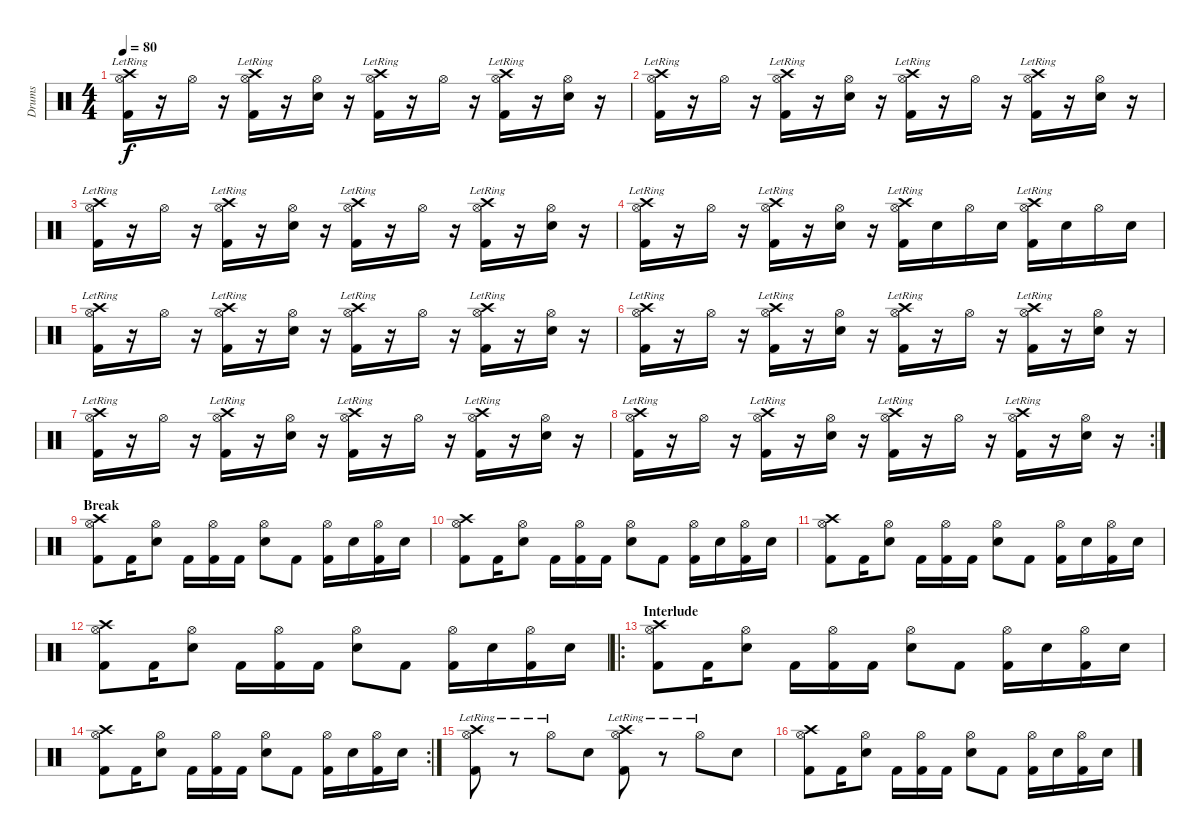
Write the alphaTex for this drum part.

\track ("Drums" "Drums") {instrument percussion}
\staff {score}
\articulation defaults
\ts (4 4)
\tempo 80
\clef neutral
\ks c
("Crash high (hit)"{lr} "Hi-Hat (open)" "Kick (hit) 2").16{dy f} r.16 "Hi-Hat (open)".16 r.16 ("Crash high (hit)"{lr} "Hi-Hat (open)" "Kick (hit) 2").16 r.16 ("Hi-Hat (open)" "Snare (hit) 2").16 r.16 ("Crash high (hit)"{lr} "Hi-Hat (open)" "Kick (hit) 2").16 r.16 "Hi-Hat (open)".16 r.16 ("Crash high (hit)"{lr} "Hi-Hat (open)" "Kick (hit) 2").16 r.16 ("Hi-Hat (open)" "Snare (hit) 2").16 r.16 |
("Crash high (hit)"{lr} "Hi-Hat (open)" "Kick (hit) 2").16 r.16 "Hi-Hat (open)".16 r.16 ("Crash high (hit)"{lr} "Hi-Hat (open)" "Kick (hit) 2").16 r.16 ("Hi-Hat (open)" "Snare (hit) 2").16 r.16 ("Crash high (hit)"{lr} "Hi-Hat (open)" "Kick (hit) 2").16 r.16 "Hi-Hat (open)".16 r.16 ("Crash high (hit)"{lr} "Hi-Hat (open)" "Kick (hit) 2").16 r.16 ("Hi-Hat (open)" "Snare (hit) 2").16 r.16 |
("Crash high (hit)"{lr} "Hi-Hat (open)" "Kick (hit) 2").16 r.16 "Hi-Hat (open)".16 r.16 ("Crash high (hit)"{lr} "Hi-Hat (open)" "Kick (hit) 2").16 r.16 ("Hi-Hat (open)" "Snare (hit) 2").16 r.16 ("Crash high (hit)"{lr} "Hi-Hat (open)" "Kick (hit) 2").16 r.16 "Hi-Hat (open)".16 r.16 ("Crash high (hit)"{lr} "Hi-Hat (open)" "Kick (hit) 2").16 r.16 ("Hi-Hat (open)" "Snare (hit) 2").16 r.16 |
("Crash high (hit)"{lr} "Hi-Hat (open)" "Kick (hit) 2").16 r.16 "Hi-Hat (open)".16 r.16 ("Crash high (hit)"{lr} "Hi-Hat (open)" "Kick (hit) 2").16 r.16 ("Hi-Hat (open)" "Snare (hit) 2").16 r.16 ("Crash high (hit)"{lr} "Hi-Hat (open)" "Kick (hit) 2").16 "Snare (hit) 2".16 "Hi-Hat (open)".16 "Snare (hit) 2".16 ("Crash high (hit)"{lr} "Hi-Hat (open)" "Kick (hit) 2").16 "Snare (hit) 2".16 "Hi-Hat (open)".16 "Snare (hit) 2".16 |
("Crash high (hit)"{lr} "Hi-Hat (open)" "Kick (hit) 2").16 r.16 "Hi-Hat (open)".16 r.16 ("Crash high (hit)"{lr} "Hi-Hat (open)" "Kick (hit) 2").16 r.16 ("Hi-Hat (open)" "Snare (hit) 2").16 r.16 ("Crash high (hit)"{lr} "Hi-Hat (open)" "Kick (hit) 2").16 r.16 "Hi-Hat (open)".16 r.16 ("Crash high (hit)"{lr} "Hi-Hat (open)" "Kick (hit) 2").16 r.16 ("Hi-Hat (open)" "Snare (hit) 2").16 r.16 |
("Crash high (hit)"{lr} "Hi-Hat (open)" "Kick (hit) 2").16 r.16 "Hi-Hat (open)".16 r.16 ("Crash high (hit)"{lr} "Hi-Hat (open)" "Kick (hit) 2").16 r.16 ("Hi-Hat (open)" "Snare (hit) 2").16 r.16 ("Crash high (hit)"{lr} "Hi-Hat (open)" "Kick (hit) 2").16 r.16 "Hi-Hat (open)".16 r.16 ("Crash high (hit)"{lr} "Hi-Hat (open)" "Kick (hit) 2").16 r.16 ("Hi-Hat (open)" "Snare (hit) 2").16 r.16 |
("Crash high (hit)"{lr} "Hi-Hat (open)" "Kick (hit) 2").16 r.16 "Hi-Hat (open)".16 r.16 ("Crash high (hit)"{lr} "Hi-Hat (open)" "Kick (hit) 2").16 r.16 ("Hi-Hat (open)" "Snare (hit) 2").16 r.16 ("Crash high (hit)"{lr} "Hi-Hat (open)" "Kick (hit) 2").16 r.16 "Hi-Hat (open)".16 r.16 ("Crash high (hit)"{lr} "Hi-Hat (open)" "Kick (hit) 2").16 r.16 ("Hi-Hat (open)" "Snare (hit) 2").16 r.16 |
\rc 2
("Crash high (hit)"{lr} "Hi-Hat (open)" "Kick (hit) 2").16 r.16 "Hi-Hat (open)".16 r.16 ("Crash high (hit)"{lr} "Hi-Hat (open)" "Kick (hit) 2").16 r.16 ("Hi-Hat (open)" "Snare (hit) 2").16 r.16 ("Crash high (hit)"{lr} "Hi-Hat (open)" "Kick (hit) 2").16 r.16 "Hi-Hat (open)".16 r.16 ("Crash high (hit)"{lr} "Hi-Hat (open)" "Kick (hit) 2").16 r.16 ("Hi-Hat (open)" "Snare (hit) 2").16 r.16 |
\section ("" "Break")
("Crash high (hit)" "Hi-Hat (open)" "Kick (hit) 2").8 "Kick (hit) 2".16 ("Hi-Hat (open)" "Snare (hit) 2").8 "Kick (hit) 2".16 ("Hi-Hat (open)" "Kick (hit) 2").16 "Kick (hit) 2".16 ("Hi-Hat (open)" "Snare (hit) 2").8 "Kick (hit) 2".8 ("Hi-Hat (open)" "Kick (hit) 2").16 "Snare (hit) 2".16 ("Hi-Hat (open)" "Kick (hit) 2").16 "Snare (hit) 2".16 |
("Crash high (hit)" "Hi-Hat (open)" "Kick (hit) 2").8 "Kick (hit) 2".16 ("Hi-Hat (open)" "Snare (hit) 2").8 "Kick (hit) 2".16 ("Hi-Hat (open)" "Kick (hit) 2").16 "Kick (hit) 2".16 ("Hi-Hat (open)" "Snare (hit) 2").8 "Kick (hit) 2".8 ("Hi-Hat (open)" "Kick (hit) 2").16 "Snare (hit) 2".16 ("Hi-Hat (open)" "Kick (hit) 2").16 "Snare (hit) 2".16 |
("Crash high (hit)" "Hi-Hat (open)" "Kick (hit) 2").8 "Kick (hit) 2".16 ("Hi-Hat (open)" "Snare (hit) 2").8 "Kick (hit) 2".16 ("Hi-Hat (open)" "Kick (hit) 2").16 "Kick (hit) 2".16 ("Hi-Hat (open)" "Snare (hit) 2").8 "Kick (hit) 2".8 ("Hi-Hat (open)" "Kick (hit) 2").16 "Snare (hit) 2".16 ("Hi-Hat (open)" "Kick (hit) 2").16 "Snare (hit) 2".16 |
("Crash high (hit)" "Hi-Hat (open)" "Kick (hit) 2").8 "Kick (hit) 2".16 ("Hi-Hat (open)" "Snare (hit) 2").8 "Kick (hit) 2".16 ("Hi-Hat (open)" "Kick (hit) 2").16 "Kick (hit) 2".16 ("Hi-Hat (open)" "Snare (hit) 2").8 "Kick (hit) 2".8 ("Hi-Hat (open)" "Kick (hit) 2").16 "Snare (hit) 2".16 ("Hi-Hat (open)" "Kick (hit) 2").16 "Snare (hit) 2".16 |
\ro
\section ("" "Interlude")
("Crash high (hit)" "Hi-Hat (open)" "Kick (hit) 2").8 "Kick (hit) 2".16 ("Hi-Hat (open)" "Snare (hit) 2").8 "Kick (hit) 2".16 ("Hi-Hat (open)" "Kick (hit) 2").16 "Kick (hit) 2".16 ("Hi-Hat (open)" "Snare (hit) 2").8 "Kick (hit) 2".8 ("Hi-Hat (open)" "Kick (hit) 2").16 "Snare (hit) 2".16 ("Hi-Hat (open)" "Kick (hit) 2").16 "Snare (hit) 2".16 |
\rc 2
("Crash high (hit)" "Hi-Hat (open)" "Kick (hit) 2").8 "Kick (hit) 2".16 ("Hi-Hat (open)" "Snare (hit) 2").8 "Kick (hit) 2".16 ("Hi-Hat (open)" "Kick (hit) 2").16 "Kick (hit) 2".16 ("Hi-Hat (open)" "Snare (hit) 2").8 "Kick (hit) 2".8 ("Hi-Hat (open)" "Kick (hit) 2").16 "Snare (hit) 2".16 ("Hi-Hat (open)" "Kick (hit) 2").16 "Snare (hit) 2".16 |
("Crash high (hit)"{lr} "Hi-Hat (open)"{lr} "Kick (hit) 2").8 r.8 "Hi-Hat (open)"{lr}.8 "Snare (hit) 2".8 ("Crash high (hit)"{lr} "Hi-Hat (open)"{lr} "Kick (hit) 2").8 r.8 "Hi-Hat (open)"{lr}.8 "Snare (hit) 2".8 |
("Crash high (hit)" "Hi-Hat (open)" "Kick (hit) 2").8 "Kick (hit) 2".16 ("Hi-Hat (open)" "Snare (hit) 2").8 "Kick (hit) 2".16 ("Hi-Hat (open)" "Kick (hit) 2").16 "Kick (hit) 2".16 ("Hi-Hat (open)" "Snare (hit) 2").8 "Kick (hit) 2".8 ("Hi-Hat (open)" "Kick (hit) 2").16 "Snare (hit) 2".16 ("Hi-Hat (open)" "Kick (hit) 2").16 "Snare (hit) 2".16
